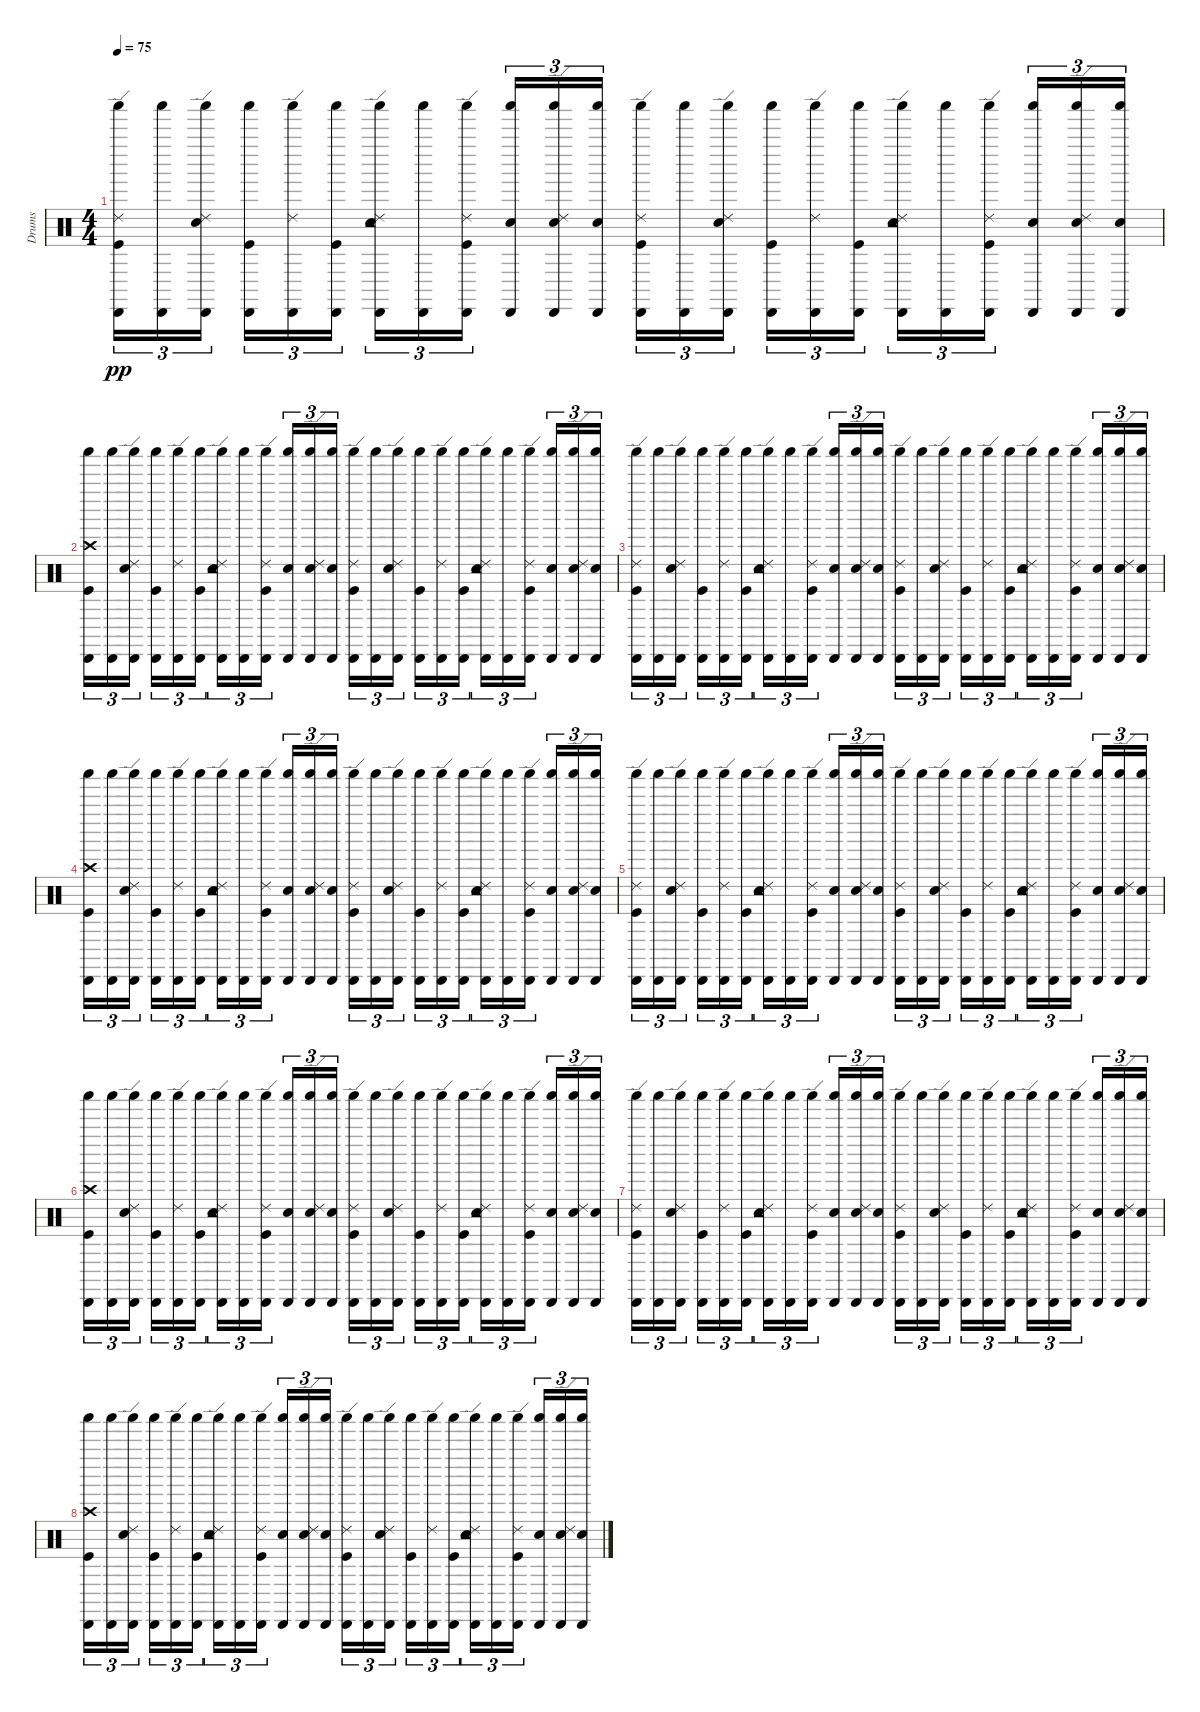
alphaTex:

\track ("Drums" "Drums") {instrument percussion}
\staff {score}
\articulation defaults
\ts (4 4)
\tempo 75
\clef neutral
\ks c
("Cabasa (hit)" "Ride (edge) 2" "Kick (hit)" "Shaker (hit)").16{tu (3 2) dy pp} ("Cabasa (hit)" "Shaker (hit)").16{tu (3 2)} ("Cabasa (hit)" "Electric Snare (hit)" "Ride (edge) 2" "Shaker (hit)").16{tu (3 2)} ("Kick (hit)" "Cabasa (hit)" "Shaker (hit)").16{tu (3 2)} ("Ride (edge) 2" "Cabasa (hit)" "Shaker (hit)").16{tu (3 2)} ("Kick (hit)" "Cabasa (hit)" "Shaker (hit)").16{tu (3 2)} ("Ride (edge) 2" "Cabasa (hit)" "Electric Snare (hit)" "Tambourine (hit)" "Shaker (hit)").16{tu (3 2)} ("Cabasa (hit)" "Shaker (hit)").16{tu (3 2)} ("Cabasa (hit)" "Kick (hit)" "Ride (edge) 2" "Shaker (hit)").16{tu (3 2)} ("Cabasa (hit)" "Electric Snare (hit)" "Shaker (hit)").16{tu (3 2)} ("Cabasa (hit)" "Ride (edge) 2" "Electric Snare (hit)" "Shaker (hit)").16{tu (3 2)} ("Cabasa (hit)" "Electric Snare (hit)" "Shaker (hit)").16{tu (3 2)} ("Kick (hit)" "Ride (edge) 2" "Cabasa (hit)" "Shaker (hit)").16{tu (3 2)} ("Cabasa (hit)" "Shaker (hit)").16{tu (3 2)} ("Cabasa (hit)" "Electric Snare (hit)" "Ride (edge) 2" "Shaker (hit)").16{tu (3 2)} ("Kick (hit)" "Cabasa (hit)" "Shaker (hit)").16{tu (3 2)} ("Cabasa (hit)" "Ride (edge) 2" "Shaker (hit)").16{tu (3 2)} ("Kick (hit)" "Cabasa (hit)" "Shaker (hit)").16{tu (3 2)} ("Cabasa (hit)" "Ride (edge) 2" "Electric Snare (hit)" "Tambourine (hit)" "Shaker (hit)").16{tu (3 2)} ("Cabasa (hit)" "Shaker (hit)").16{tu (3 2)} ("Ride (edge) 2" "Kick (hit)" "Cabasa (hit)" "Shaker (hit)").16{tu (3 2)} ("Cabasa (hit)" "Electric Snare (hit)" "Shaker (hit)").16{tu (3 2)} ("Electric Snare (hit)" "Cabasa (hit)" "Ride (edge) 2" "Shaker (hit)").16{tu (3 2)} ("Cabasa (hit)" "Electric Snare (hit)" "Shaker (hit)").16{tu (3 2)} |
("Kick (hit)" "Cabasa (hit)" "Crash high (hit)" "Shaker (hit)").16{tu (3 2)} ("Cabasa (hit)" "Shaker (hit)").16{tu (3 2)} ("Cabasa (hit)" "Ride (edge) 2" "Electric Snare (hit)" "Shaker (hit)").16{tu (3 2)} ("Kick (hit)" "Cabasa (hit)" "Shaker (hit)").16{tu (3 2)} ("Cabasa (hit)" "Ride (edge) 2" "Shaker (hit)").16{tu (3 2)} ("Kick (hit)" "Cabasa (hit)" "Shaker (hit)").16{tu (3 2)} ("Electric Snare (hit)" "Ride (edge) 2" "Cabasa (hit)" "Tambourine (hit)" "Shaker (hit)").16{tu (3 2)} ("Cabasa (hit)" "Shaker (hit)").16{tu (3 2)} ("Ride (edge) 2" "Kick (hit)" "Cabasa (hit)" "Shaker (hit)").16{tu (3 2)} ("Electric Snare (hit)" "Cabasa (hit)" "Shaker (hit)").16{tu (3 2)} ("Cabasa (hit)" "Electric Snare (hit)" "Ride (edge) 2" "Shaker (hit)").16{tu (3 2)} ("Cabasa (hit)" "Electric Snare (hit)" "Shaker (hit)").16{tu (3 2)} ("Ride (edge) 2" "Kick (hit)" "Cabasa (hit)" "Shaker (hit)").16{tu (3 2)} ("Cabasa (hit)" "Shaker (hit)").16{tu (3 2)} ("Cabasa (hit)" "Electric Snare (hit)" "Ride (edge) 2" "Shaker (hit)").16{tu (3 2)} ("Kick (hit)" "Cabasa (hit)" "Shaker (hit)").16{tu (3 2)} ("Ride (edge) 2" "Cabasa (hit)" "Shaker (hit)").16{tu (3 2)} ("Kick (hit)" "Cabasa (hit)" "Shaker (hit)").16{tu (3 2)} ("Electric Snare (hit)" "Ride (edge) 2" "Cabasa (hit)" "Tambourine (hit)" "Shaker (hit)").16{tu (3 2)} ("Cabasa (hit)" "Shaker (hit)").16{tu (3 2)} ("Ride (edge) 2" "Kick (hit)" "Cabasa (hit)" "Shaker (hit)").16{tu (3 2)} ("Cabasa (hit)" "Electric Snare (hit)" "Shaker (hit)").16{tu (3 2)} ("Electric Snare (hit)" "Cabasa (hit)" "Ride (edge) 2" "Shaker (hit)").16{tu (3 2)} ("Cabasa (hit)" "Electric Snare (hit)" "Shaker (hit)").16{tu (3 2)} |
("Cabasa (hit)" "Ride (edge) 2" "Kick (hit)" "Shaker (hit)").16{tu (3 2)} ("Cabasa (hit)" "Shaker (hit)").16{tu (3 2)} ("Cabasa (hit)" "Electric Snare (hit)" "Ride (edge) 2" "Shaker (hit)").16{tu (3 2)} ("Kick (hit)" "Cabasa (hit)" "Shaker (hit)").16{tu (3 2)} ("Ride (edge) 2" "Cabasa (hit)" "Shaker (hit)").16{tu (3 2)} ("Kick (hit)" "Cabasa (hit)" "Shaker (hit)").16{tu (3 2)} ("Ride (edge) 2" "Cabasa (hit)" "Electric Snare (hit)" "Tambourine (hit)" "Shaker (hit)").16{tu (3 2)} ("Cabasa (hit)" "Shaker (hit)").16{tu (3 2)} ("Cabasa (hit)" "Kick (hit)" "Ride (edge) 2" "Shaker (hit)").16{tu (3 2)} ("Cabasa (hit)" "Electric Snare (hit)" "Shaker (hit)").16{tu (3 2)} ("Cabasa (hit)" "Ride (edge) 2" "Electric Snare (hit)" "Shaker (hit)").16{tu (3 2)} ("Cabasa (hit)" "Electric Snare (hit)" "Shaker (hit)").16{tu (3 2)} ("Kick (hit)" "Ride (edge) 2" "Cabasa (hit)" "Shaker (hit)").16{tu (3 2)} ("Cabasa (hit)" "Shaker (hit)").16{tu (3 2)} ("Cabasa (hit)" "Electric Snare (hit)" "Ride (edge) 2" "Shaker (hit)").16{tu (3 2)} ("Kick (hit)" "Cabasa (hit)" "Shaker (hit)").16{tu (3 2)} ("Cabasa (hit)" "Ride (edge) 2" "Shaker (hit)").16{tu (3 2)} ("Kick (hit)" "Cabasa (hit)" "Shaker (hit)").16{tu (3 2)} ("Cabasa (hit)" "Ride (edge) 2" "Electric Snare (hit)" "Tambourine (hit)" "Shaker (hit)").16{tu (3 2)} ("Cabasa (hit)" "Shaker (hit)").16{tu (3 2)} ("Ride (edge) 2" "Kick (hit)" "Cabasa (hit)" "Shaker (hit)").16{tu (3 2)} ("Cabasa (hit)" "Electric Snare (hit)" "Shaker (hit)").16{tu (3 2)} ("Electric Snare (hit)" "Cabasa (hit)" "Ride (edge) 2" "Shaker (hit)").16{tu (3 2)} ("Cabasa (hit)" "Electric Snare (hit)" "Shaker (hit)").16{tu (3 2)} |
("Kick (hit)" "Cabasa (hit)" "Crash high (hit)" "Shaker (hit)").16{tu (3 2)} ("Cabasa (hit)" "Shaker (hit)").16{tu (3 2)} ("Cabasa (hit)" "Ride (edge) 2" "Electric Snare (hit)" "Shaker (hit)").16{tu (3 2)} ("Kick (hit)" "Cabasa (hit)" "Shaker (hit)").16{tu (3 2)} ("Cabasa (hit)" "Ride (edge) 2" "Shaker (hit)").16{tu (3 2)} ("Kick (hit)" "Cabasa (hit)" "Shaker (hit)").16{tu (3 2)} ("Electric Snare (hit)" "Ride (edge) 2" "Cabasa (hit)" "Tambourine (hit)" "Shaker (hit)").16{tu (3 2)} ("Cabasa (hit)" "Shaker (hit)").16{tu (3 2)} ("Ride (edge) 2" "Kick (hit)" "Cabasa (hit)" "Shaker (hit)").16{tu (3 2)} ("Electric Snare (hit)" "Cabasa (hit)" "Shaker (hit)").16{tu (3 2)} ("Cabasa (hit)" "Electric Snare (hit)" "Ride (edge) 2" "Shaker (hit)").16{tu (3 2)} ("Cabasa (hit)" "Electric Snare (hit)" "Shaker (hit)").16{tu (3 2)} ("Ride (edge) 2" "Kick (hit)" "Cabasa (hit)" "Shaker (hit)").16{tu (3 2)} ("Cabasa (hit)" "Shaker (hit)").16{tu (3 2)} ("Cabasa (hit)" "Electric Snare (hit)" "Ride (edge) 2" "Shaker (hit)").16{tu (3 2)} ("Kick (hit)" "Cabasa (hit)" "Shaker (hit)").16{tu (3 2)} ("Ride (edge) 2" "Cabasa (hit)" "Shaker (hit)").16{tu (3 2)} ("Kick (hit)" "Cabasa (hit)" "Shaker (hit)").16{tu (3 2)} ("Electric Snare (hit)" "Ride (edge) 2" "Cabasa (hit)" "Tambourine (hit)" "Shaker (hit)").16{tu (3 2)} ("Cabasa (hit)" "Shaker (hit)").16{tu (3 2)} ("Ride (edge) 2" "Kick (hit)" "Cabasa (hit)" "Shaker (hit)").16{tu (3 2)} ("Cabasa (hit)" "Electric Snare (hit)" "Shaker (hit)").16{tu (3 2)} ("Electric Snare (hit)" "Cabasa (hit)" "Ride (edge) 2" "Shaker (hit)").16{tu (3 2)} ("Cabasa (hit)" "Electric Snare (hit)" "Shaker (hit)").16{tu (3 2)} |
("Cabasa (hit)" "Ride (edge) 2" "Kick (hit)" "Shaker (hit)").16{tu (3 2)} ("Cabasa (hit)" "Shaker (hit)").16{tu (3 2)} ("Cabasa (hit)" "Electric Snare (hit)" "Ride (edge) 2" "Shaker (hit)").16{tu (3 2)} ("Kick (hit)" "Cabasa (hit)" "Shaker (hit)").16{tu (3 2)} ("Ride (edge) 2" "Cabasa (hit)" "Shaker (hit)").16{tu (3 2)} ("Kick (hit)" "Cabasa (hit)" "Shaker (hit)").16{tu (3 2)} ("Ride (edge) 2" "Cabasa (hit)" "Electric Snare (hit)" "Tambourine (hit)" "Shaker (hit)").16{tu (3 2)} ("Cabasa (hit)" "Shaker (hit)").16{tu (3 2)} ("Cabasa (hit)" "Kick (hit)" "Ride (edge) 2" "Shaker (hit)").16{tu (3 2)} ("Cabasa (hit)" "Electric Snare (hit)" "Shaker (hit)").16{tu (3 2)} ("Cabasa (hit)" "Ride (edge) 2" "Electric Snare (hit)" "Shaker (hit)").16{tu (3 2)} ("Cabasa (hit)" "Electric Snare (hit)" "Shaker (hit)").16{tu (3 2)} ("Kick (hit)" "Ride (edge) 2" "Cabasa (hit)" "Shaker (hit)").16{tu (3 2)} ("Cabasa (hit)" "Shaker (hit)").16{tu (3 2)} ("Cabasa (hit)" "Electric Snare (hit)" "Ride (edge) 2" "Shaker (hit)").16{tu (3 2)} ("Kick (hit)" "Cabasa (hit)" "Shaker (hit)").16{tu (3 2)} ("Cabasa (hit)" "Ride (edge) 2" "Shaker (hit)").16{tu (3 2)} ("Kick (hit)" "Cabasa (hit)" "Shaker (hit)").16{tu (3 2)} ("Cabasa (hit)" "Ride (edge) 2" "Electric Snare (hit)" "Tambourine (hit)" "Shaker (hit)").16{tu (3 2)} ("Cabasa (hit)" "Shaker (hit)").16{tu (3 2)} ("Ride (edge) 2" "Kick (hit)" "Cabasa (hit)" "Shaker (hit)").16{tu (3 2)} ("Cabasa (hit)" "Electric Snare (hit)" "Shaker (hit)").16{tu (3 2)} ("Electric Snare (hit)" "Cabasa (hit)" "Ride (edge) 2" "Shaker (hit)").16{tu (3 2)} ("Cabasa (hit)" "Electric Snare (hit)" "Shaker (hit)").16{tu (3 2)} |
("Kick (hit)" "Cabasa (hit)" "Crash high (hit)" "Shaker (hit)").16{tu (3 2)} ("Cabasa (hit)" "Shaker (hit)").16{tu (3 2)} ("Cabasa (hit)" "Ride (edge) 2" "Electric Snare (hit)" "Shaker (hit)").16{tu (3 2)} ("Kick (hit)" "Cabasa (hit)" "Shaker (hit)").16{tu (3 2)} ("Cabasa (hit)" "Ride (edge) 2" "Shaker (hit)").16{tu (3 2)} ("Kick (hit)" "Cabasa (hit)" "Shaker (hit)").16{tu (3 2)} ("Electric Snare (hit)" "Ride (edge) 2" "Cabasa (hit)" "Tambourine (hit)" "Shaker (hit)").16{tu (3 2)} ("Cabasa (hit)" "Shaker (hit)").16{tu (3 2)} ("Ride (edge) 2" "Kick (hit)" "Cabasa (hit)" "Shaker (hit)").16{tu (3 2)} ("Electric Snare (hit)" "Cabasa (hit)" "Shaker (hit)").16{tu (3 2)} ("Cabasa (hit)" "Electric Snare (hit)" "Ride (edge) 2" "Shaker (hit)").16{tu (3 2)} ("Cabasa (hit)" "Electric Snare (hit)" "Shaker (hit)").16{tu (3 2)} ("Ride (edge) 2" "Kick (hit)" "Cabasa (hit)" "Shaker (hit)").16{tu (3 2)} ("Cabasa (hit)" "Shaker (hit)").16{tu (3 2)} ("Cabasa (hit)" "Electric Snare (hit)" "Ride (edge) 2" "Shaker (hit)").16{tu (3 2)} ("Kick (hit)" "Cabasa (hit)" "Shaker (hit)").16{tu (3 2)} ("Ride (edge) 2" "Cabasa (hit)" "Shaker (hit)").16{tu (3 2)} ("Kick (hit)" "Cabasa (hit)" "Shaker (hit)").16{tu (3 2)} ("Electric Snare (hit)" "Ride (edge) 2" "Cabasa (hit)" "Tambourine (hit)" "Shaker (hit)").16{tu (3 2)} ("Cabasa (hit)" "Shaker (hit)").16{tu (3 2)} ("Ride (edge) 2" "Kick (hit)" "Cabasa (hit)" "Shaker (hit)").16{tu (3 2)} ("Cabasa (hit)" "Electric Snare (hit)" "Shaker (hit)").16{tu (3 2)} ("Electric Snare (hit)" "Cabasa (hit)" "Ride (edge) 2" "Shaker (hit)").16{tu (3 2)} ("Cabasa (hit)" "Electric Snare (hit)" "Shaker (hit)").16{tu (3 2)} |
("Cabasa (hit)" "Ride (edge) 2" "Kick (hit)" "Shaker (hit)").16{tu (3 2)} ("Cabasa (hit)" "Shaker (hit)").16{tu (3 2)} ("Cabasa (hit)" "Electric Snare (hit)" "Ride (edge) 2" "Shaker (hit)").16{tu (3 2)} ("Kick (hit)" "Cabasa (hit)" "Shaker (hit)").16{tu (3 2)} ("Ride (edge) 2" "Cabasa (hit)" "Shaker (hit)").16{tu (3 2)} ("Kick (hit)" "Cabasa (hit)" "Shaker (hit)").16{tu (3 2)} ("Ride (edge) 2" "Cabasa (hit)" "Electric Snare (hit)" "Tambourine (hit)" "Shaker (hit)").16{tu (3 2)} ("Cabasa (hit)" "Shaker (hit)").16{tu (3 2)} ("Cabasa (hit)" "Kick (hit)" "Ride (edge) 2" "Shaker (hit)").16{tu (3 2)} ("Cabasa (hit)" "Electric Snare (hit)" "Shaker (hit)").16{tu (3 2)} ("Cabasa (hit)" "Ride (edge) 2" "Electric Snare (hit)" "Shaker (hit)").16{tu (3 2)} ("Cabasa (hit)" "Electric Snare (hit)" "Shaker (hit)").16{tu (3 2)} ("Kick (hit)" "Ride (edge) 2" "Cabasa (hit)" "Shaker (hit)").16{tu (3 2)} ("Cabasa (hit)" "Shaker (hit)").16{tu (3 2)} ("Cabasa (hit)" "Electric Snare (hit)" "Ride (edge) 2" "Shaker (hit)").16{tu (3 2)} ("Kick (hit)" "Cabasa (hit)" "Shaker (hit)").16{tu (3 2)} ("Cabasa (hit)" "Ride (edge) 2" "Shaker (hit)").16{tu (3 2)} ("Kick (hit)" "Cabasa (hit)" "Shaker (hit)").16{tu (3 2)} ("Cabasa (hit)" "Ride (edge) 2" "Electric Snare (hit)" "Tambourine (hit)" "Shaker (hit)").16{tu (3 2)} ("Cabasa (hit)" "Shaker (hit)").16{tu (3 2)} ("Ride (edge) 2" "Kick (hit)" "Cabasa (hit)" "Shaker (hit)").16{tu (3 2)} ("Cabasa (hit)" "Electric Snare (hit)" "Shaker (hit)").16{tu (3 2)} ("Electric Snare (hit)" "Cabasa (hit)" "Ride (edge) 2" "Shaker (hit)").16{tu (3 2)} ("Cabasa (hit)" "Electric Snare (hit)" "Shaker (hit)").16{tu (3 2)} |
("Kick (hit)" "Cabasa (hit)" "Crash high (hit)" "Shaker (hit)").16{tu (3 2) volume 8} ("Cabasa (hit)" "Shaker (hit)").16{tu (3 2)} ("Cabasa (hit)" "Ride (edge) 2" "Electric Snare (hit)" "Shaker (hit)").16{tu (3 2)} ("Kick (hit)" "Cabasa (hit)" "Shaker (hit)").16{tu (3 2)} ("Cabasa (hit)" "Ride (edge) 2" "Shaker (hit)").16{tu (3 2)} ("Kick (hit)" "Cabasa (hit)" "Shaker (hit)").16{tu (3 2)} ("Electric Snare (hit)" "Ride (edge) 2" "Cabasa (hit)" "Tambourine (hit)" "Shaker (hit)").16{tu (3 2)} ("Cabasa (hit)" "Shaker (hit)").16{tu (3 2)} ("Ride (edge) 2" "Kick (hit)" "Cabasa (hit)" "Shaker (hit)").16{tu (3 2)} ("Electric Snare (hit)" "Cabasa (hit)" "Shaker (hit)").16{tu (3 2)} ("Cabasa (hit)" "Electric Snare (hit)" "Ride (edge) 2" "Shaker (hit)").16{tu (3 2)} ("Cabasa (hit)" "Electric Snare (hit)" "Shaker (hit)").16{tu (3 2)} ("Ride (edge) 2" "Kick (hit)" "Cabasa (hit)" "Shaker (hit)").16{tu (3 2)} ("Cabasa (hit)" "Shaker (hit)").16{tu (3 2)} ("Cabasa (hit)" "Electric Snare (hit)" "Ride (edge) 2" "Shaker (hit)").16{tu (3 2)} ("Kick (hit)" "Cabasa (hit)" "Shaker (hit)").16{tu (3 2)} ("Ride (edge) 2" "Cabasa (hit)" "Shaker (hit)").16{tu (3 2)} ("Kick (hit)" "Cabasa (hit)" "Shaker (hit)").16{tu (3 2)} ("Electric Snare (hit)" "Ride (edge) 2" "Cabasa (hit)" "Tambourine (hit)" "Shaker (hit)").16{tu (3 2)} ("Cabasa (hit)" "Shaker (hit)").16{tu (3 2)} ("Ride (edge) 2" "Kick (hit)" "Cabasa (hit)" "Shaker (hit)").16{tu (3 2)} ("Cabasa (hit)" "Electric Snare (hit)" "Shaker (hit)").16{tu (3 2)} ("Electric Snare (hit)" "Cabasa (hit)" "Ride (edge) 2" "Shaker (hit)").16{tu (3 2)} ("Cabasa (hit)" "Electric Snare (hit)" "Shaker (hit)").16{tu (3 2)}
